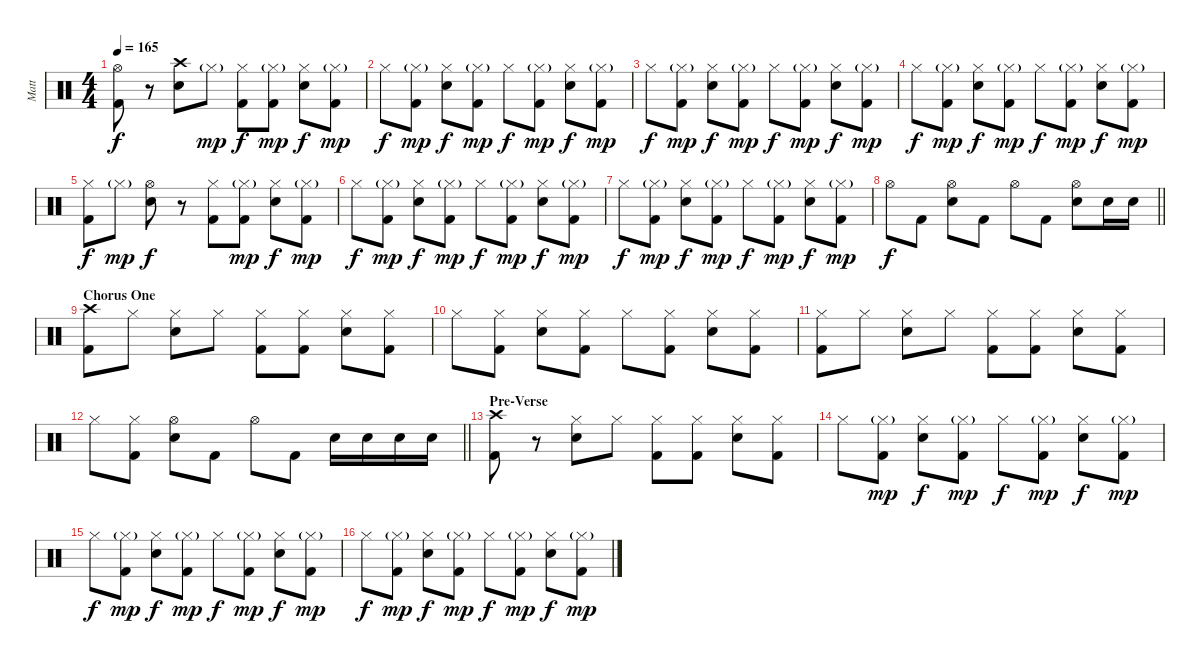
\track ("Matt" "Matt") {instrument percussion}
\staff {score}
\articulation defaults
\ts (4 4)
\tempo 165
\clef neutral
\ks c
("Hi-Hat (open)" "Kick (hit) 2").8{dy f} r.8 ("Crash high (hit)" "Snare (hit) 2").8 "Hi-Hat (closed)"{g}.8{dy mp} ("Hi-Hat (closed)" "Kick (hit) 2").8{dy f} ("Hi-Hat (closed)"{g} "Kick (hit) 2").8{dy mp} ("Hi-Hat (closed)" "Snare (hit) 2").8{dy f} ("Hi-Hat (closed)"{g} "Kick (hit) 2").8{dy mp} |
"Hi-Hat (closed)".8{dy f} ("Hi-Hat (closed)"{g} "Kick (hit) 2").8{dy mp} ("Hi-Hat (closed)" "Snare (hit) 2").8{dy f} ("Hi-Hat (closed)"{g} "Kick (hit) 2").8{dy mp} "Hi-Hat (closed)".8{dy f} ("Hi-Hat (closed)"{g} "Kick (hit) 2").8{dy mp} ("Hi-Hat (closed)" "Snare (hit) 2").8{dy f} ("Hi-Hat (closed)"{g} "Kick (hit) 2").8{dy mp} |
"Hi-Hat (closed)".8{dy f} ("Hi-Hat (closed)"{g} "Kick (hit) 2").8{dy mp} ("Hi-Hat (closed)" "Snare (hit) 2").8{dy f} ("Hi-Hat (closed)"{g} "Kick (hit) 2").8{dy mp} "Hi-Hat (closed)".8{dy f} ("Hi-Hat (closed)"{g} "Kick (hit) 2").8{dy mp} ("Hi-Hat (closed)" "Snare (hit) 2").8{dy f} ("Hi-Hat (closed)"{g} "Kick (hit) 2").8{dy mp} |
"Hi-Hat (closed)".8{dy f} ("Hi-Hat (closed)"{g} "Kick (hit) 2").8{dy mp} ("Hi-Hat (closed)" "Snare (hit) 2").8{dy f} ("Hi-Hat (closed)"{g} "Kick (hit) 2").8{dy mp} "Hi-Hat (closed)".8{dy f} ("Hi-Hat (closed)"{g} "Kick (hit) 2").8{dy mp} ("Hi-Hat (closed)" "Snare (hit) 2").8{dy f} ("Hi-Hat (closed)"{g} "Kick (hit) 2").8{dy mp} |
("Hi-Hat (closed)" "Kick (hit) 2").8{dy f} "Hi-Hat (closed)"{g}.8{dy mp} ("Hi-Hat (open)" "Snare (hit) 2").8{dy f} r.8 ("Hi-Hat (closed)" "Kick (hit) 2").8 ("Hi-Hat (closed)"{g} "Kick (hit) 2").8{dy mp} ("Hi-Hat (closed)" "Snare (hit) 2").8{dy f} ("Hi-Hat (closed)"{g} "Kick (hit) 2").8{dy mp} |
"Hi-Hat (closed)".8{dy f} ("Hi-Hat (closed)"{g} "Kick (hit) 2").8{dy mp} ("Hi-Hat (closed)" "Snare (hit) 2").8{dy f} ("Hi-Hat (closed)"{g} "Kick (hit) 2").8{dy mp} "Hi-Hat (closed)".8{dy f} ("Hi-Hat (closed)"{g} "Kick (hit) 2").8{dy mp} ("Hi-Hat (closed)" "Snare (hit) 2").8{dy f} ("Hi-Hat (closed)"{g} "Kick (hit) 2").8{dy mp} |
"Hi-Hat (closed)".8{dy f} ("Hi-Hat (closed)"{g} "Kick (hit) 2").8{dy mp} ("Hi-Hat (closed)" "Snare (hit) 2").8{dy f} ("Hi-Hat (closed)"{g} "Kick (hit) 2").8{dy mp} "Hi-Hat (closed)".8{dy f} ("Hi-Hat (closed)"{g} "Kick (hit) 2").8{dy mp} ("Hi-Hat (closed)" "Snare (hit) 2").8{dy f} ("Hi-Hat (closed)"{g} "Kick (hit) 2").8{dy mp} |
\barLineRight lightlight "Hi-Hat (open)".8{dy f} "Kick (hit) 2".8
("Hi-Hat (open)" "Snare (hit) 2").8 "Kick (hit) 2".8 "Hi-Hat (open)".8 "Kick (hit) 2".8 ("Hi-Hat (open)" "Snare (hit) 2").8 "Snare (hit) 2".16 "Snare (hit) 2".16 |
\section ("" "Chorus One")
("Crash high (hit)" "Kick (hit) 2").8 "Hi-Hat (closed)".8 ("Hi-Hat (closed)" "Snare (hit) 2").8 "Hi-Hat (closed)".8 ("Hi-Hat (closed)" "Kick (hit) 2").8 ("Hi-Hat (closed)" "Kick (hit) 2").8 ("Hi-Hat (closed)" "Snare (hit) 2").8 ("Hi-Hat (closed)" "Kick (hit) 2").8 |
"Hi-Hat (closed)".8 ("Hi-Hat (closed)" "Kick (hit) 2").8 ("Hi-Hat (closed)" "Snare (hit) 2").8 ("Hi-Hat (closed)" "Kick (hit) 2").8 "Hi-Hat (closed)".8 ("Hi-Hat (closed)" "Kick (hit) 2").8 ("Hi-Hat (closed)" "Snare (hit) 2").8 ("Hi-Hat (closed)" "Kick (hit) 2").8 |
("Hi-Hat (closed)" "Kick (hit) 2").8 "Hi-Hat (closed)".8 ("Hi-Hat (closed)" "Snare (hit) 2").8 "Hi-Hat (closed)".8 ("Hi-Hat (closed)" "Kick (hit) 2").8 ("Hi-Hat (closed)" "Kick (hit) 2").8 ("Hi-Hat (closed)" "Snare (hit) 2").8 ("Hi-Hat (closed)" "Kick (hit) 2").8 |
\barLineRight lightlight "Hi-Hat (closed)".8
("Hi-Hat (closed)" "Kick (hit) 2").8 ("Hi-Hat (open)" "Snare (hit) 2").8 "Kick (hit) 2".8 "Hi-Hat (open)".8 "Kick (hit) 2".8 "Snare (hit) 2".16 "Snare (hit) 2".16 "Snare (hit) 2".16 "Snare (hit) 2".16 |
\section ("" "Pre-Verse")
("Crash high (hit)" "Kick (hit) 2").8 r.8 ("Hi-Hat (closed)" "Snare (hit) 2").8 "Hi-Hat (closed)".8 ("Hi-Hat (closed)" "Kick (hit) 2").8 ("Hi-Hat (closed)" "Kick (hit) 2").8 ("Hi-Hat (closed)" "Snare (hit) 2").8 ("Hi-Hat (closed)" "Kick (hit) 2").8 |
"Hi-Hat (closed)".8 ("Hi-Hat (closed)"{g} "Kick (hit) 2").8{dy mp} ("Hi-Hat (closed)" "Snare (hit) 2").8{dy f} ("Hi-Hat (closed)"{g} "Kick (hit) 2").8{dy mp} "Hi-Hat (closed)".8{dy f} ("Hi-Hat (closed)"{g} "Kick (hit) 2").8{dy mp} ("Hi-Hat (closed)" "Snare (hit) 2").8{dy f} ("Hi-Hat (closed)"{g} "Kick (hit) 2").8{dy mp} |
"Hi-Hat (closed)".8{dy f} ("Hi-Hat (closed)"{g} "Kick (hit) 2").8{dy mp} ("Hi-Hat (closed)" "Snare (hit) 2").8{dy f} ("Hi-Hat (closed)"{g} "Kick (hit) 2").8{dy mp} "Hi-Hat (closed)".8{dy f} ("Hi-Hat (closed)"{g} "Kick (hit) 2").8{dy mp} ("Hi-Hat (closed)" "Snare (hit) 2").8{dy f} ("Hi-Hat (closed)"{g} "Kick (hit) 2").8{dy mp} |
"Hi-Hat (closed)".8{dy f} ("Hi-Hat (closed)"{g} "Kick (hit) 2").8{dy mp} ("Hi-Hat (closed)" "Snare (hit) 2").8{dy f} ("Hi-Hat (closed)"{g} "Kick (hit) 2").8{dy mp} "Hi-Hat (closed)".8{dy f} ("Hi-Hat (closed)"{g} "Kick (hit) 2").8{dy mp} ("Hi-Hat (closed)" "Snare (hit) 2").8{dy f} ("Hi-Hat (closed)"{g} "Kick (hit) 2").8{dy mp}
